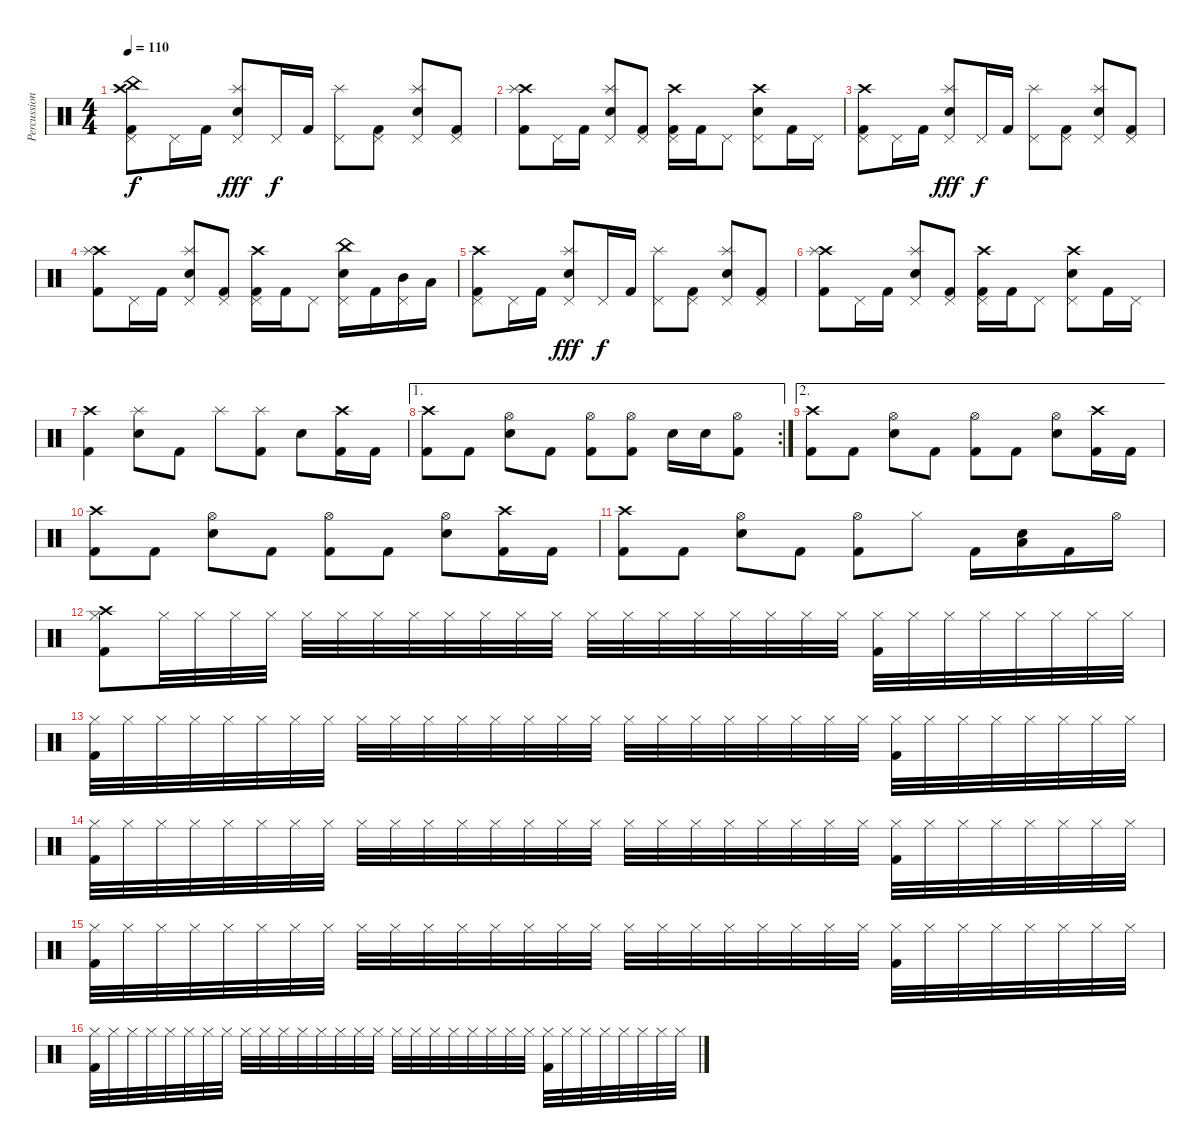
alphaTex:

\track ("Percussion" "Percussion") {instrument percussion}
\staff {score}
\articulation defaults
\ts (4 4)
\tempo 110
\clef neutral
\ks c
("Crash high (hit)" "China (hit)" "Pedal Hi-Hat (hit)" "Kick (hit) 2").8{dy f} "Pedal Hi-Hat (hit)".16 "Kick (hit) 2".16 ("Splash (hit)" "Snare (hit) 2" "Pedal Hi-Hat (hit)").8{dy fff} "Pedal Hi-Hat (hit)".16{dy f} "Kick (hit) 2".16 ("Splash (hit)" "Pedal Hi-Hat (hit)").8 ("Pedal Hi-Hat (hit)" "Kick (hit) 2").8 ("Splash (hit)" "Snare (hit) 2" "Pedal Hi-Hat (hit)").8 ("Pedal Hi-Hat (hit)" "Kick (hit) 2").8 |
("Crash high (hit)" "Splash (hit)" "Kick (hit) 2").8 "Pedal Hi-Hat (hit)".16 "Kick (hit) 2".16 ("Splash (hit)" "Snare (hit) 2" "Pedal Hi-Hat (hit)").8 ("Pedal Hi-Hat (hit)" "Kick (hit) 2").8 ("Crash high (hit)" "Pedal Hi-Hat (hit)" "Kick (hit) 2").16 "Kick (hit) 2".16 "Pedal Hi-Hat (hit)".8 ("Crash high (hit)" "Snare (hit) 2" "Pedal Hi-Hat (hit)").8 "Kick (hit) 2".16 "Pedal Hi-Hat (hit)".16 |
("Crash high (hit)" "Pedal Hi-Hat (hit)" "Kick (hit) 2").8 "Pedal Hi-Hat (hit)".16 "Kick (hit) 2".16 ("Splash (hit)" "Snare (hit) 2" "Pedal Hi-Hat (hit)").8{dy fff} "Pedal Hi-Hat (hit)".16{dy f} "Kick (hit) 2".16 ("Splash (hit)" "Pedal Hi-Hat (hit)").8 ("Pedal Hi-Hat (hit)" "Kick (hit) 2").8 ("Splash (hit)" "Snare (hit) 2" "Pedal Hi-Hat (hit)").8 ("Pedal Hi-Hat (hit)" "Kick (hit) 2").8 |
("Crash high (hit)" "Splash (hit)" "Kick (hit) 2").8 "Pedal Hi-Hat (hit)".16 "Kick (hit) 2".16 ("Splash (hit)" "Snare (hit) 2" "Pedal Hi-Hat (hit)").8 ("Pedal Hi-Hat (hit)" "Kick (hit) 2").8 ("Crash high (hit)" "Pedal Hi-Hat (hit)" "Kick (hit) 2").16 "Kick (hit) 2".16 "Pedal Hi-Hat (hit)".8 ("China (hit)" "Snare (hit) 2" "Pedal Hi-Hat (hit)").16 "Kick (hit) 2".16 ("Mid Tom (hit)" "Pedal Hi-Hat (hit)").16 "Low Floor Tom (hit)".16 |
("Crash high (hit)" "Pedal Hi-Hat (hit)" "Kick (hit) 2").8 "Pedal Hi-Hat (hit)".16 "Kick (hit) 2".16 ("Splash (hit)" "Snare (hit) 2" "Pedal Hi-Hat (hit)").8{dy fff} "Pedal Hi-Hat (hit)".16{dy f} "Kick (hit) 2".16 ("Splash (hit)" "Pedal Hi-Hat (hit)").8 ("Pedal Hi-Hat (hit)" "Kick (hit) 2").8 ("Splash (hit)" "Snare (hit) 2" "Pedal Hi-Hat (hit)").8 ("Pedal Hi-Hat (hit)" "Kick (hit) 2").8 |
("Crash high (hit)" "Splash (hit)" "Kick (hit) 2").8 "Pedal Hi-Hat (hit)".16 "Kick (hit) 2".16 ("Splash (hit)" "Snare (hit) 2" "Pedal Hi-Hat (hit)").8 ("Pedal Hi-Hat (hit)" "Kick (hit) 2").8 ("Crash high (hit)" "Pedal Hi-Hat (hit)" "Kick (hit) 2").16 "Kick (hit) 2".16 "Pedal Hi-Hat (hit)".8 ("Crash high (hit)" "Snare (hit) 2" "Pedal Hi-Hat (hit)").8 "Kick (hit) 2".16 "Pedal Hi-Hat (hit)".16 |
("Crash high (hit)" "Kick (hit) 2").4 ("Splash (hit)" "Snare (hit) 2").8 "Kick (hit) 2".8 "Splash (hit)".8 ("Splash (hit)" "Kick (hit) 2").8 "Snare (hit) 2".8 ("Crash high (hit)" "Kick (hit) 2").16 "Kick (hit) 2".16 |
\ae 1
\rc 2
("Crash high (hit)" "Kick (hit) 2").8 "Kick (hit) 2".8 ("Snare (hit) 2" "Hi-Hat (open)").8 "Kick (hit) 2".8 ("Hi-Hat (open)" "Kick (hit) 2").8 ("Hi-Hat (open)" "Kick (hit) 2").8 "Snare (hit) 2".16 "Snare (hit) 2".16 ("Hi-Hat (open)" "Kick (hit) 2").8 |
\ae 2
("Crash high (hit)" "Kick (hit) 2").8 "Kick (hit) 2".8 ("Snare (hit) 2" "Hi-Hat (open)").8 "Kick (hit) 2".8 ("Hi-Hat (open)" "Kick (hit) 2").8 "Kick (hit) 2".8 ("Snare (hit) 2" "Hi-Hat (open)").8 ("Crash high (hit)" "Kick (hit) 2").16 "Kick (hit) 2".16 |
("Crash high (hit)" "Kick (hit) 2").8 "Kick (hit) 2".8 ("Snare (hit) 2" "Hi-Hat (open)").8 "Kick (hit) 2".8 ("Hi-Hat (open)" "Kick (hit) 2").8 "Kick (hit) 2".8 ("Snare (hit) 2" "Hi-Hat (open)").8 ("Crash high (hit)" "Kick (hit) 2").16 "Kick (hit) 2".16 |
("Crash high (hit)" "Kick (hit) 2").8 "Kick (hit) 2".8 ("Snare (hit) 2" "Hi-Hat (open)").8 "Kick (hit) 2".8 ("Hi-Hat (open)" "Kick (hit) 2").8 "Hi-Hat (closed)".8 "Kick (hit) 2".16 ("Snare (hit) 2" "Low Floor Tom (hit)").16 "Kick (hit) 2".16 "Hi-Hat (open)".16 |
("Crash high (hit)" "Hi-Hat (closed)" "Kick (hit) 2").8 "Hi-Hat (closed)".32 "Hi-Hat (closed)".32 "Hi-Hat (closed)".32 "Hi-Hat (closed)".32 "Hi-Hat (closed)".32 "Hi-Hat (closed)".32 "Hi-Hat (closed)".32 "Hi-Hat (closed)".32 "Hi-Hat (closed)".32 "Hi-Hat (closed)".32 "Hi-Hat (closed)".32 "Hi-Hat (closed)".32 "Hi-Hat (closed)".32 "Hi-Hat (closed)".32 "Hi-Hat (closed)".32 "Hi-Hat (closed)".32 "Hi-Hat (closed)".32 "Hi-Hat (closed)".32 "Hi-Hat (closed)".32 "Hi-Hat (closed)".32 ("Hi-Hat (closed)" "Kick (hit) 2").32 "Hi-Hat (closed)".32 "Hi-Hat (closed)".32 "Hi-Hat (closed)".32 "Hi-Hat (closed)".32 "Hi-Hat (closed)".32 "Hi-Hat (closed)".32 "Hi-Hat (closed)".32 |
("Hi-Hat (closed)" "Kick (hit) 2").32 "Hi-Hat (closed)".32 "Hi-Hat (closed)".32 "Hi-Hat (closed)".32 "Hi-Hat (closed)".32 "Hi-Hat (closed)".32 "Hi-Hat (closed)".32 "Hi-Hat (closed)".32 "Hi-Hat (closed)".32 "Hi-Hat (closed)".32 "Hi-Hat (closed)".32 "Hi-Hat (closed)".32 "Hi-Hat (closed)".32 "Hi-Hat (closed)".32 "Hi-Hat (closed)".32 "Hi-Hat (closed)".32 "Hi-Hat (closed)".32 "Hi-Hat (closed)".32 "Hi-Hat (closed)".32 "Hi-Hat (closed)".32 "Hi-Hat (closed)".32 "Hi-Hat (closed)".32 "Hi-Hat (closed)".32 "Hi-Hat (closed)".32 ("Hi-Hat (closed)" "Kick (hit) 2").32 "Hi-Hat (closed)".32 "Hi-Hat (closed)".32 "Hi-Hat (closed)".32 "Hi-Hat (closed)".32 "Hi-Hat (closed)".32 "Hi-Hat (closed)".32 "Hi-Hat (closed)".32 |
("Hi-Hat (closed)" "Kick (hit) 2").32 "Hi-Hat (closed)".32 "Hi-Hat (closed)".32 "Hi-Hat (closed)".32 "Hi-Hat (closed)".32 "Hi-Hat (closed)".32 "Hi-Hat (closed)".32 "Hi-Hat (closed)".32 "Hi-Hat (closed)".32 "Hi-Hat (closed)".32 "Hi-Hat (closed)".32 "Hi-Hat (closed)".32 "Hi-Hat (closed)".32 "Hi-Hat (closed)".32 "Hi-Hat (closed)".32 "Hi-Hat (closed)".32 "Hi-Hat (closed)".32 "Hi-Hat (closed)".32 "Hi-Hat (closed)".32 "Hi-Hat (closed)".32 "Hi-Hat (closed)".32 "Hi-Hat (closed)".32 "Hi-Hat (closed)".32 "Hi-Hat (closed)".32 ("Hi-Hat (closed)" "Kick (hit) 2").32 "Hi-Hat (closed)".32 "Hi-Hat (closed)".32 "Hi-Hat (closed)".32 "Hi-Hat (closed)".32 "Hi-Hat (closed)".32 "Hi-Hat (closed)".32 "Hi-Hat (closed)".32 |
("Hi-Hat (closed)" "Kick (hit) 2").32 "Hi-Hat (closed)".32 "Hi-Hat (closed)".32 "Hi-Hat (closed)".32 "Hi-Hat (closed)".32 "Hi-Hat (closed)".32 "Hi-Hat (closed)".32 "Hi-Hat (closed)".32 "Hi-Hat (closed)".32 "Hi-Hat (closed)".32 "Hi-Hat (closed)".32 "Hi-Hat (closed)".32 "Hi-Hat (closed)".32 "Hi-Hat (closed)".32 "Hi-Hat (closed)".32 "Hi-Hat (closed)".32 "Hi-Hat (closed)".32 "Hi-Hat (closed)".32 "Hi-Hat (closed)".32 "Hi-Hat (closed)".32 "Hi-Hat (closed)".32 "Hi-Hat (closed)".32 "Hi-Hat (closed)".32 "Hi-Hat (closed)".32 ("Hi-Hat (closed)" "Kick (hit) 2").32 "Hi-Hat (closed)".32 "Hi-Hat (closed)".32 "Hi-Hat (closed)".32 "Hi-Hat (closed)".32 "Hi-Hat (closed)".32 "Hi-Hat (closed)".32 "Hi-Hat (closed)".32 |
("Hi-Hat (closed)" "Kick (hit) 2").32 "Hi-Hat (closed)".32 "Hi-Hat (closed)".32 "Hi-Hat (closed)".32 "Hi-Hat (closed)".32 "Hi-Hat (closed)".32 "Hi-Hat (closed)".32 "Hi-Hat (closed)".32 "Hi-Hat (closed)".32 "Hi-Hat (closed)".32 "Hi-Hat (closed)".32 "Hi-Hat (closed)".32 "Hi-Hat (closed)".32 "Hi-Hat (closed)".32 "Hi-Hat (closed)".32 "Hi-Hat (closed)".32 "Hi-Hat (closed)".32 "Hi-Hat (closed)".32 "Hi-Hat (closed)".32 "Hi-Hat (closed)".32 "Hi-Hat (closed)".32 "Hi-Hat (closed)".32 "Hi-Hat (closed)".32 "Hi-Hat (closed)".32 ("Hi-Hat (closed)" "Kick (hit) 2").32 "Hi-Hat (closed)".32 "Hi-Hat (closed)".32 "Hi-Hat (closed)".32 "Hi-Hat (closed)".32 "Hi-Hat (closed)".32 "Hi-Hat (closed)".32 "Hi-Hat (closed)".32
